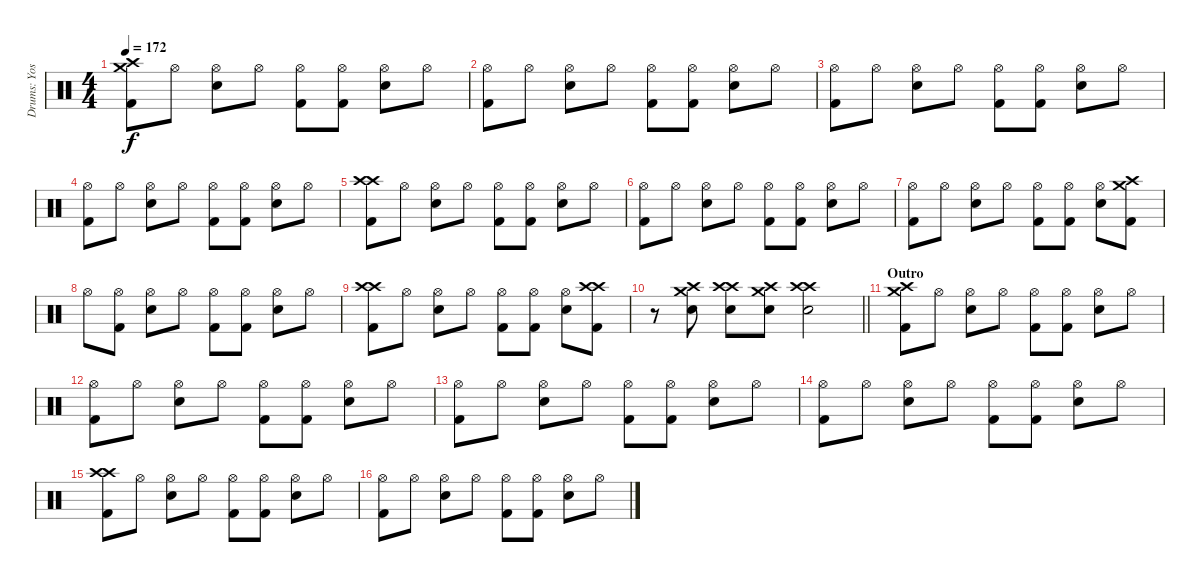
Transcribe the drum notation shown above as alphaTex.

\track ("Drums: Yoshiki" "Drums: Yos") {instrument percussion}
\staff {score}
\articulation defaults
\ts (4 4)
\tempo 172
\clef neutral
\ks c
("Crash high (hit)" "Crash medium (hit)" "Kick (hit) 2").8{dy f} "Hi-Hat (open)".8 ("Hi-Hat (open)" "Snare (hit) 2").8 "Hi-Hat (open)".8 ("Hi-Hat (open)" "Kick (hit) 2").8 ("Hi-Hat (open)" "Kick (hit) 2").8 ("Hi-Hat (open)" "Snare (hit) 2").8 "Hi-Hat (open)".8 |
("Hi-Hat (open)" "Kick (hit) 2").8 "Hi-Hat (open)".8 ("Hi-Hat (open)" "Snare (hit) 2").8 "Hi-Hat (open)".8 ("Hi-Hat (open)" "Kick (hit) 2").8 ("Hi-Hat (open)" "Kick (hit) 2").8 ("Hi-Hat (open)" "Snare (hit) 2").8 "Hi-Hat (open)".8 |
("Hi-Hat (open)" "Kick (hit) 2").8 "Hi-Hat (open)".8 ("Hi-Hat (open)" "Snare (hit) 2").8 "Hi-Hat (open)".8 ("Hi-Hat (open)" "Kick (hit) 2").8 ("Hi-Hat (open)" "Kick (hit) 2").8 ("Hi-Hat (open)" "Snare (hit) 2").8 "Hi-Hat (open)".8 |
("Hi-Hat (open)" "Kick (hit) 2").8 "Hi-Hat (open)".8 ("Hi-Hat (open)" "Snare (hit) 2").8 "Hi-Hat (open)".8 ("Hi-Hat (open)" "Kick (hit) 2").8 ("Hi-Hat (open)" "Kick (hit) 2").8 ("Hi-Hat (open)" "Snare (hit) 2").8 "Hi-Hat (open)".8 |
("Crash high (hit)" "Crash high (hit)" "Kick (hit) 2").8 "Hi-Hat (open)".8 ("Hi-Hat (open)" "Snare (hit) 2").8 "Hi-Hat (open)".8 ("Hi-Hat (open)" "Kick (hit) 2").8 ("Hi-Hat (open)" "Kick (hit) 2").8 ("Hi-Hat (open)" "Snare (hit) 2").8 "Hi-Hat (open)".8 |
("Hi-Hat (open)" "Kick (hit) 2").8 "Hi-Hat (open)".8 ("Hi-Hat (open)" "Snare (hit) 2").8 "Hi-Hat (open)".8 ("Hi-Hat (open)" "Kick (hit) 2").8 ("Hi-Hat (open)" "Kick (hit) 2").8 ("Hi-Hat (open)" "Snare (hit) 2").8 "Hi-Hat (open)".8 |
("Hi-Hat (open)" "Kick (hit) 2").8 "Hi-Hat (open)".8 ("Hi-Hat (open)" "Snare (hit) 2").8 "Hi-Hat (open)".8 ("Hi-Hat (open)" "Kick (hit) 2").8 ("Hi-Hat (open)" "Kick (hit) 2").8 ("Hi-Hat (open)" "Snare (hit) 2").8 ("Crash high (hit)" "Crash medium (hit)" "Kick (hit) 2").8 |
"Hi-Hat (open)".8 ("Hi-Hat (open)" "Kick (hit) 2").8 ("Hi-Hat (open)" "Snare (hit) 2").8 "Hi-Hat (open)".8 ("Hi-Hat (open)" "Kick (hit) 2").8 ("Hi-Hat (open)" "Kick (hit) 2").8 ("Hi-Hat (open)" "Snare (hit) 2").8 "Hi-Hat (open)".8 |
("Crash high (hit)" "Crash high (hit)" "Kick (hit) 2").8 "Hi-Hat (open)".8 ("Hi-Hat (open)" "Snare (hit) 2").8 "Hi-Hat (open)".8 ("Hi-Hat (open)" "Kick (hit) 2").8 ("Hi-Hat (open)" "Kick (hit) 2").8 ("Hi-Hat (open)" "Snare (hit) 2").8 ("Crash high (hit)" "Crash high (hit)" "Kick (hit) 2").8 |
\barLineRight lightlight
r.8 ("Crash high (hit)" "Crash medium (hit)" "Snare (hit) 2").8 ("Crash high (hit)" "Crash high (hit)" "Snare (hit) 2").8 ("Crash high (hit)" "Crash medium (hit)" "Snare (hit) 2").8 ("Crash high (hit)" "Crash high (hit)" "Snare (hit) 2").2 |
\section ("" "Outro")
("Crash high (hit)" "Crash medium (hit)" "Kick (hit) 2").8 "Hi-Hat (open)".8 ("Hi-Hat (open)" "Snare (hit) 2").8 "Hi-Hat (open)".8 ("Hi-Hat (open)" "Kick (hit) 2").8 ("Hi-Hat (open)" "Kick (hit) 2").8 ("Hi-Hat (open)" "Snare (hit) 2").8 "Hi-Hat (open)".8 |
("Hi-Hat (open)" "Kick (hit) 2").8 "Hi-Hat (open)".8 ("Hi-Hat (open)" "Snare (hit) 2").8 "Hi-Hat (open)".8 ("Hi-Hat (open)" "Kick (hit) 2").8 ("Hi-Hat (open)" "Kick (hit) 2").8 ("Hi-Hat (open)" "Snare (hit) 2").8 "Hi-Hat (open)".8 |
("Hi-Hat (open)" "Kick (hit) 2").8 "Hi-Hat (open)".8 ("Hi-Hat (open)" "Snare (hit) 2").8 "Hi-Hat (open)".8 ("Hi-Hat (open)" "Kick (hit) 2").8 ("Hi-Hat (open)" "Kick (hit) 2").8 ("Hi-Hat (open)" "Snare (hit) 2").8 "Hi-Hat (open)".8 |
("Hi-Hat (open)" "Kick (hit) 2").8 "Hi-Hat (open)".8 ("Hi-Hat (open)" "Snare (hit) 2").8 "Hi-Hat (open)".8 ("Hi-Hat (open)" "Kick (hit) 2").8 ("Hi-Hat (open)" "Kick (hit) 2").8 ("Hi-Hat (open)" "Snare (hit) 2").8 "Hi-Hat (open)".8 |
("Crash high (hit)" "Crash high (hit)" "Kick (hit) 2").8 "Hi-Hat (open)".8 ("Hi-Hat (open)" "Snare (hit) 2").8 "Hi-Hat (open)".8 ("Hi-Hat (open)" "Kick (hit) 2").8 ("Hi-Hat (open)" "Kick (hit) 2").8 ("Hi-Hat (open)" "Snare (hit) 2").8 "Hi-Hat (open)".8 |
("Hi-Hat (open)" "Kick (hit) 2").8 "Hi-Hat (open)".8 ("Hi-Hat (open)" "Snare (hit) 2").8 "Hi-Hat (open)".8 ("Hi-Hat (open)" "Kick (hit) 2").8 ("Hi-Hat (open)" "Kick (hit) 2").8 ("Hi-Hat (open)" "Snare (hit) 2").8 "Hi-Hat (open)".8
